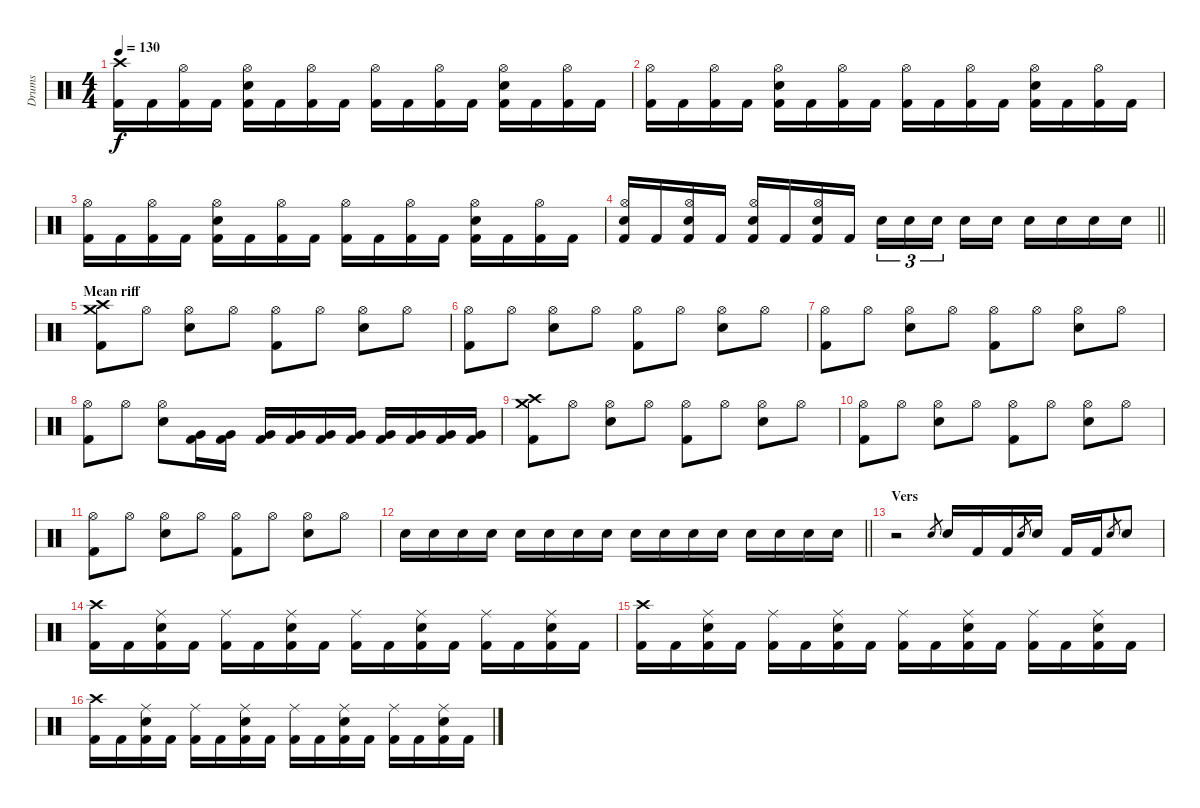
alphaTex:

\track ("Drums" "Drums") {instrument percussion}
\staff {score}
\articulation defaults
\ts (4 4)
\tempo 130
\clef neutral
\ks c
("Crash high (hit)" "Kick (hit) 2").16{dy f} "Kick (hit) 2".16 ("Hi-Hat (open)" "Kick (hit) 2").16 "Kick (hit) 2".16 ("Hi-Hat (open)" "Electric Snare (hit)" "Kick (hit) 2").16 "Kick (hit) 2".16 ("Hi-Hat (open)" "Kick (hit) 2").16 "Kick (hit) 2".16 ("Hi-Hat (open)" "Kick (hit) 2").16 "Kick (hit) 2".16 ("Hi-Hat (open)" "Kick (hit) 2").16 "Kick (hit) 2".16 ("Hi-Hat (open)" "Electric Snare (hit)" "Kick (hit) 2").16 "Kick (hit) 2".16 ("Hi-Hat (open)" "Kick (hit) 2").16 "Kick (hit) 2".16 |
("Hi-Hat (open)" "Kick (hit) 2").16 "Kick (hit) 2".16 ("Hi-Hat (open)" "Kick (hit) 2").16 "Kick (hit) 2".16 ("Hi-Hat (open)" "Electric Snare (hit)" "Kick (hit) 2").16 "Kick (hit) 2".16 ("Hi-Hat (open)" "Kick (hit) 2").16 "Kick (hit) 2".16 ("Hi-Hat (open)" "Kick (hit) 2").16 "Kick (hit) 2".16 ("Hi-Hat (open)" "Kick (hit) 2").16 "Kick (hit) 2".16 ("Hi-Hat (open)" "Electric Snare (hit)" "Kick (hit) 2").16 "Kick (hit) 2".16 ("Hi-Hat (open)" "Kick (hit) 2").16 "Kick (hit) 2".16 |
("Hi-Hat (open)" "Kick (hit) 2").16 "Kick (hit) 2".16 ("Hi-Hat (open)" "Kick (hit) 2").16 "Kick (hit) 2".16 ("Hi-Hat (open)" "Electric Snare (hit)" "Kick (hit) 2").16 "Kick (hit) 2".16 ("Hi-Hat (open)" "Kick (hit) 2").16 "Kick (hit) 2".16 ("Hi-Hat (open)" "Kick (hit) 2").16 "Kick (hit) 2".16 ("Hi-Hat (open)" "Kick (hit) 2").16 "Kick (hit) 2".16 ("Hi-Hat (open)" "Electric Snare (hit)" "Kick (hit) 2").16 "Kick (hit) 2".16 ("Hi-Hat (open)" "Kick (hit) 2").16 "Kick (hit) 2".16 |
\barLineRight lightlight
("Hi-Hat (open)" "Electric Snare (hit)" "Kick (hit) 2").16 "Kick (hit) 2".16 ("Hi-Hat (open)" "Electric Snare (hit)" "Kick (hit) 2").16 "Kick (hit) 2".16 ("Hi-Hat (open)" "Electric Snare (hit)" "Kick (hit) 2").16 "Kick (hit) 2".16 ("Hi-Hat (open)" "Electric Snare (hit)" "Kick (hit) 2").16 "Kick (hit) 2".16 "Electric Snare (hit)".16{tu (3 2)} "Electric Snare (hit)".16{tu (3 2)} "Electric Snare (hit)".16{tu (3 2) beam splitsecondary} "Electric Snare (hit)".16 "Electric Snare (hit)".16 "Electric Snare (hit)".16 "Electric Snare (hit)".16 "Electric Snare (hit)".16 "Electric Snare (hit)".16 |
\section ("" "Mean riff")
("Crash medium (hit)" "Crash high (hit)" "Kick (hit) 2").8 "Hi-Hat (open)".8 ("Hi-Hat (open)" "Snare (hit) 2").8 "Hi-Hat (open)".8 ("Hi-Hat (open)" "Kick (hit) 2").8 "Hi-Hat (open)".8 ("Hi-Hat (open)" "Snare (hit) 2").8 "Hi-Hat (open)".8 |
("Hi-Hat (open)" "Kick (hit) 2").8 "Hi-Hat (open)".8 ("Hi-Hat (open)" "Snare (hit) 2").8 "Hi-Hat (open)".8 ("Hi-Hat (open)" "Kick (hit) 2").8 "Hi-Hat (open)".8 ("Hi-Hat (open)" "Snare (hit) 2").8 "Hi-Hat (open)".8 |
("Hi-Hat (open)" "Kick (hit) 2").8 "Hi-Hat (open)".8 ("Hi-Hat (open)" "Snare (hit) 2").8 "Hi-Hat (open)".8 ("Hi-Hat (open)" "Kick (hit) 2").8 "Hi-Hat (open)".8 ("Hi-Hat (open)" "Snare (hit) 2").8 "Hi-Hat (open)".8 |
("Hi-Hat (open)" "Kick (hit) 2").8 "Hi-Hat (open)".8 ("Hi-Hat (open)" "Snare (hit) 2").8 ("Very Low Tom (hit)" "Kick (hit) 2").16 ("Very Low Tom (hit)" "Kick (hit) 2").16 ("Very Low Tom (hit)" "Kick (hit) 2").16 ("Very Low Tom (hit)" "Kick (hit) 2").16 ("Very Low Tom (hit)" "Kick (hit) 2").16 ("Very Low Tom (hit)" "Kick (hit) 2").16 ("Very Low Tom (hit)" "Kick (hit) 2").16 ("Very Low Tom (hit)" "Kick (hit) 2").16 ("Very Low Tom (hit)" "Kick (hit) 2").16 ("Very Low Tom (hit)" "Kick (hit) 2").16 |
("Crash medium (hit)" "Crash high (hit)" "Kick (hit) 2").8 "Hi-Hat (open)".8 ("Hi-Hat (open)" "Snare (hit) 2").8 "Hi-Hat (open)".8 ("Hi-Hat (open)" "Kick (hit) 2").8 "Hi-Hat (open)".8 ("Hi-Hat (open)" "Snare (hit) 2").8 "Hi-Hat (open)".8 |
("Hi-Hat (open)" "Kick (hit) 2").8 "Hi-Hat (open)".8 ("Hi-Hat (open)" "Snare (hit) 2").8 "Hi-Hat (open)".8 ("Hi-Hat (open)" "Kick (hit) 2").8 "Hi-Hat (open)".8 ("Hi-Hat (open)" "Snare (hit) 2").8 "Hi-Hat (open)".8 |
("Hi-Hat (open)" "Kick (hit) 2").8 "Hi-Hat (open)".8 ("Hi-Hat (open)" "Snare (hit) 2").8 "Hi-Hat (open)".8 ("Hi-Hat (open)" "Kick (hit) 2").8 "Hi-Hat (open)".8 ("Hi-Hat (open)" "Snare (hit) 2").8 "Hi-Hat (open)".8 |
\barLineRight lightlight "Electric Snare (hit)".16 "Electric Snare (hit)".16 "Electric Snare (hit)".16 "Electric Snare (hit)".16 "Electric Snare (hit)".16 "Electric Snare (hit)".16 "Electric Snare (hit)".16 "Electric Snare (hit)".16 "Electric Snare (hit)".16 "Electric Snare (hit)".16 "Electric Snare (hit)".16 "Electric Snare (hit)".16 "Electric Snare (hit)".16 "Electric Snare (hit)".16 "Electric Snare (hit)".16 "Electric Snare (hit)".16
|
\section ("" "Vers")
r.2 "Snare (hit) 2".8{gr} "Snare (hit) 2".16 "Kick (hit) 2".16 "Kick (hit) 2".16 "Snare (hit) 2".8{gr} "Snare (hit) 2".16 "Kick (hit) 2".16 "Kick (hit) 2".16 "Snare (hit) 2".8{gr} "Snare (hit) 2".8 |
("Crash high (hit)" "Kick (hit) 2").16 "Kick (hit) 2".16 ("Ride (middle)" "Electric Snare (hit)" "Kick (hit) 2").16 "Kick (hit) 2".16 ("Ride (middle)" "Kick (hit) 2").16 "Kick (hit) 2".16 ("Ride (middle)" "Electric Snare (hit)" "Kick (hit) 2").16 "Kick (hit) 2".16 ("Ride (middle)" "Kick (hit) 2").16 "Kick (hit) 2".16 ("Ride (middle)" "Electric Snare (hit)" "Kick (hit) 2").16 "Kick (hit) 2".16 ("Ride (middle)" "Kick (hit) 2").16 "Kick (hit) 2".16 ("Ride (middle)" "Electric Snare (hit)" "Kick (hit) 2").16 "Kick (hit) 2".16 |
("Crash high (hit)" "Kick (hit) 2").16 "Kick (hit) 2".16 ("Ride (middle)" "Electric Snare (hit)" "Kick (hit) 2").16 "Kick (hit) 2".16 ("Ride (middle)" "Kick (hit) 2").16 "Kick (hit) 2".16 ("Ride (middle)" "Electric Snare (hit)" "Kick (hit) 2").16 "Kick (hit) 2".16 ("Ride (middle)" "Kick (hit) 2").16 "Kick (hit) 2".16 ("Ride (middle)" "Electric Snare (hit)" "Kick (hit) 2").16 "Kick (hit) 2".16 ("Ride (middle)" "Kick (hit) 2").16 "Kick (hit) 2".16 ("Ride (middle)" "Electric Snare (hit)" "Kick (hit) 2").16 "Kick (hit) 2".16 |
("Crash high (hit)" "Kick (hit) 2").16 "Kick (hit) 2".16 ("Ride (middle)" "Electric Snare (hit)" "Kick (hit) 2").16 "Kick (hit) 2".16 ("Ride (middle)" "Kick (hit) 2").16 "Kick (hit) 2".16 ("Ride (middle)" "Electric Snare (hit)" "Kick (hit) 2").16 "Kick (hit) 2".16 ("Ride (middle)" "Kick (hit) 2").16 "Kick (hit) 2".16 ("Ride (middle)" "Electric Snare (hit)" "Kick (hit) 2").16 "Kick (hit) 2".16 ("Ride (middle)" "Kick (hit) 2").16 "Kick (hit) 2".16 ("Ride (middle)" "Electric Snare (hit)" "Kick (hit) 2").16 "Kick (hit) 2".16
